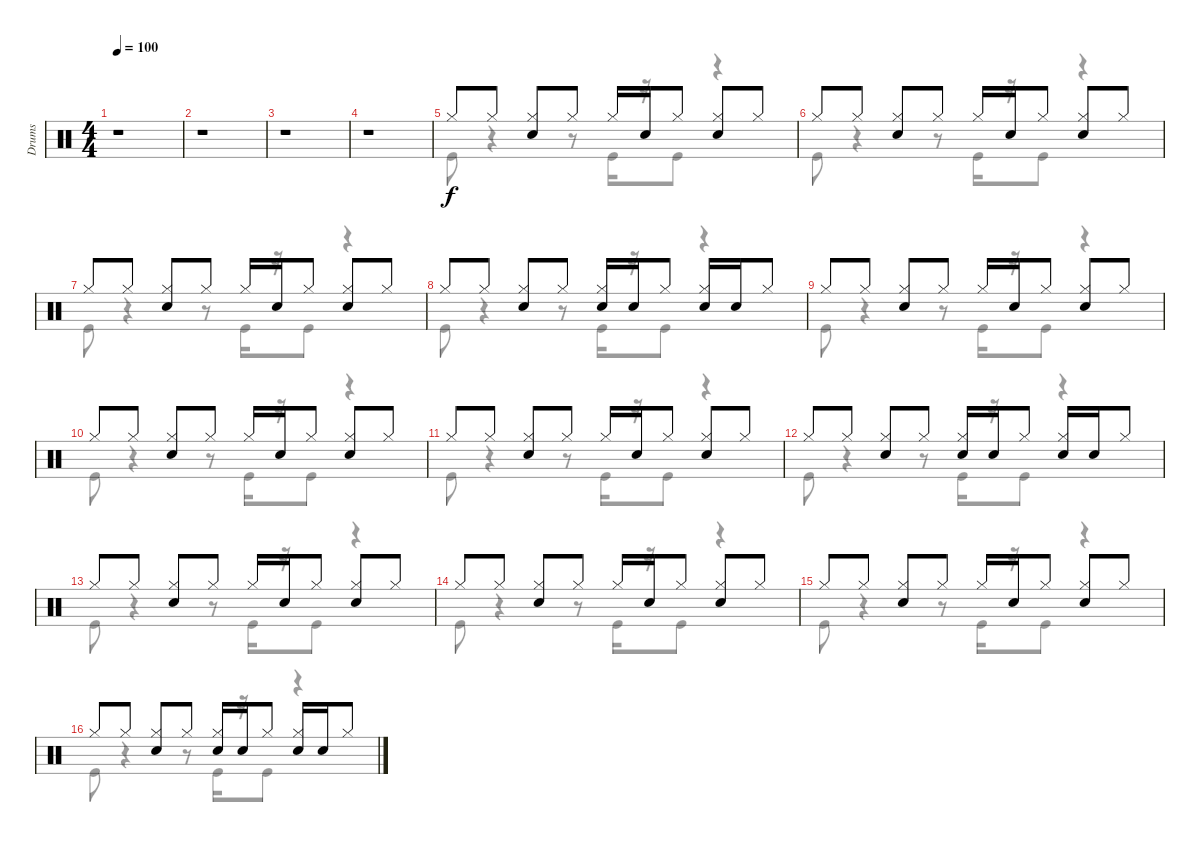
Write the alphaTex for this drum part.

\track ("Drums" "Drums") {instrument percussion}
\staff {score}
\articulation defaults
\voice
\ts (4 4)
\tempo 100
\clef neutral
\ks c
r.1{dy f} |
r.1 |
r.1 |
r.1 |
"Hi-Hat (closed)".8 "Hi-Hat (closed)".8 ("Hi-Hat (closed)" "Electric Snare (hit)").8 "Hi-Hat (closed)".8 "Hi-Hat (closed)".16 "Electric Snare (hit)".16 "Hi-Hat (closed)".8 ("Hi-Hat (closed)" "Electric Snare (hit)").8 "Hi-Hat (closed)".8 |
"Hi-Hat (closed)".8 "Hi-Hat (closed)".8 ("Hi-Hat (closed)" "Electric Snare (hit)").8 "Hi-Hat (closed)".8 "Hi-Hat (closed)".16 "Electric Snare (hit)".16 "Hi-Hat (closed)".8 ("Hi-Hat (closed)" "Electric Snare (hit)").8 "Hi-Hat (closed)".8 |
"Hi-Hat (closed)".8 "Hi-Hat (closed)".8 ("Hi-Hat (closed)" "Electric Snare (hit)").8 "Hi-Hat (closed)".8 "Hi-Hat (closed)".16 "Electric Snare (hit)".16 "Hi-Hat (closed)".8 ("Hi-Hat (closed)" "Electric Snare (hit)").8 "Hi-Hat (closed)".8 |
"Hi-Hat (closed)".8 "Hi-Hat (closed)".8 ("Hi-Hat (closed)" "Electric Snare (hit)").8 "Hi-Hat (closed)".8 ("Hi-Hat (closed)" "Electric Snare (hit)").16 "Electric Snare (hit)".16 "Hi-Hat (closed)".8 ("Hi-Hat (closed)" "Electric Snare (hit)").16 "Electric Snare (hit)".16 "Hi-Hat (closed)".8 |
"Hi-Hat (closed)".8 "Hi-Hat (closed)".8 ("Hi-Hat (closed)" "Electric Snare (hit)").8 "Hi-Hat (closed)".8 "Hi-Hat (closed)".16 "Electric Snare (hit)".16 "Hi-Hat (closed)".8 ("Hi-Hat (closed)" "Electric Snare (hit)").8 "Hi-Hat (closed)".8 |
"Hi-Hat (closed)".8 "Hi-Hat (closed)".8 ("Hi-Hat (closed)" "Electric Snare (hit)").8 "Hi-Hat (closed)".8 "Hi-Hat (closed)".16 "Electric Snare (hit)".16 "Hi-Hat (closed)".8 ("Hi-Hat (closed)" "Electric Snare (hit)").8 "Hi-Hat (closed)".8 |
"Hi-Hat (closed)".8 "Hi-Hat (closed)".8 ("Hi-Hat (closed)" "Electric Snare (hit)").8 "Hi-Hat (closed)".8 "Hi-Hat (closed)".16 "Electric Snare (hit)".16 "Hi-Hat (closed)".8 ("Hi-Hat (closed)" "Electric Snare (hit)").8 "Hi-Hat (closed)".8 |
"Hi-Hat (closed)".8 "Hi-Hat (closed)".8 ("Hi-Hat (closed)" "Electric Snare (hit)").8 "Hi-Hat (closed)".8 ("Hi-Hat (closed)" "Electric Snare (hit)").16 "Electric Snare (hit)".16 "Hi-Hat (closed)".8 ("Hi-Hat (closed)" "Electric Snare (hit)").16 "Electric Snare (hit)".16 "Hi-Hat (closed)".8 |
"Hi-Hat (closed)".8 "Hi-Hat (closed)".8 ("Hi-Hat (closed)" "Electric Snare (hit)").8 "Hi-Hat (closed)".8 "Hi-Hat (closed)".16 "Electric Snare (hit)".16 "Hi-Hat (closed)".8 ("Hi-Hat (closed)" "Electric Snare (hit)").8 "Hi-Hat (closed)".8 |
"Hi-Hat (closed)".8 "Hi-Hat (closed)".8 ("Hi-Hat (closed)" "Electric Snare (hit)").8 "Hi-Hat (closed)".8 "Hi-Hat (closed)".16 "Electric Snare (hit)".16 "Hi-Hat (closed)".8 ("Hi-Hat (closed)" "Electric Snare (hit)").8 "Hi-Hat (closed)".8 |
"Hi-Hat (closed)".8 "Hi-Hat (closed)".8 ("Hi-Hat (closed)" "Electric Snare (hit)").8 "Hi-Hat (closed)".8 "Hi-Hat (closed)".16 "Electric Snare (hit)".16 "Hi-Hat (closed)".8 ("Hi-Hat (closed)" "Electric Snare (hit)").8 "Hi-Hat (closed)".8 |
"Hi-Hat (closed)".8 "Hi-Hat (closed)".8 ("Hi-Hat (closed)" "Electric Snare (hit)").8 "Hi-Hat (closed)".8 ("Hi-Hat (closed)" "Electric Snare (hit)").16 "Electric Snare (hit)".16 "Hi-Hat (closed)".8 ("Hi-Hat (closed)" "Electric Snare (hit)").16 "Electric Snare (hit)".16 "Hi-Hat (closed)".8
\voice
\clef neutral
\ottava regular
\simile none
\ks c
r.1{dy f} |
r.1 |
r.1 |
r.1 |
"Kick (hit)".8 r.4 r.8 "Kick (hit)".16 r.16 "Kick (hit)".8 r.4 |
"Kick (hit)".8 r.4 r.8 "Kick (hit)".16 r.16 "Kick (hit)".8 r.4 |
"Kick (hit)".8 r.4 r.8 "Kick (hit)".16 r.16 "Kick (hit)".8 r.4 |
"Kick (hit)".8 r.4 r.8 "Kick (hit)".16 r.16 "Kick (hit)".8 r.4 |
"Kick (hit)".8 r.4 r.8 "Kick (hit)".16 r.16 "Kick (hit)".8 r.4 |
"Kick (hit)".8 r.4 r.8 "Kick (hit)".16 r.16 "Kick (hit)".8 r.4 |
"Kick (hit)".8 r.4 r.8 "Kick (hit)".16 r.16 "Kick (hit)".8 r.4 |
"Kick (hit)".8 r.4 r.8 "Kick (hit)".16 r.16 "Kick (hit)".8 r.4 |
"Kick (hit)".8 r.4 r.8 "Kick (hit)".16 r.16 "Kick (hit)".8 r.4 |
"Kick (hit)".8 r.4 r.8 "Kick (hit)".16 r.16 "Kick (hit)".8 r.4 |
"Kick (hit)".8 r.4 r.8 "Kick (hit)".16 r.16 "Kick (hit)".8 r.4 |
"Kick (hit)".8 r.4 r.8 "Kick (hit)".16 r.16 "Kick (hit)".8 r.4
